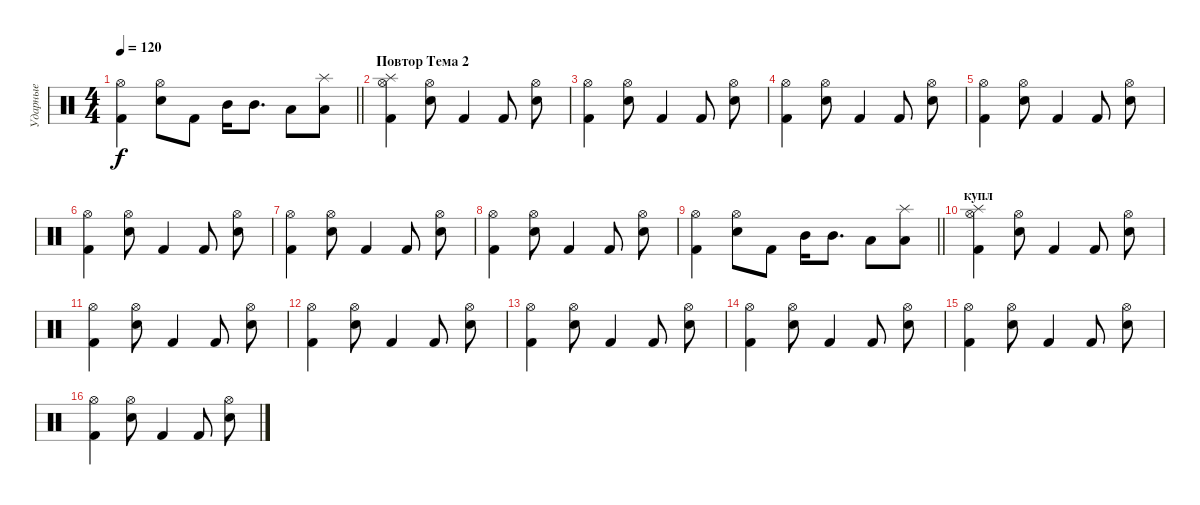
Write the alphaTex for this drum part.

\track ("Ударные" "Ударные") {instrument percussion}
\staff {score}
\articulation defaults
\ts (4 4)
\tempo 120
\clef neutral
\barLineRight lightlight
\ks c
("Kick (hit) 2" "Hi-Hat (open)").4{dy f} ("Electric Snare (hit)" "Hi-Hat (open)").8 "Kick (hit) 2".8 "Mid Tom (hit)".16 "Mid Tom (hit)".8{d} "Low Tom (hit)".8 ("Low Tom (hit)" "Splash (hit)").8 |
\section ("" "Повтор Тема 2")
("Kick (hit) 2" "Splash (hit)" "Hi-Hat (open)").4 ("Electric Snare (hit)" "Hi-Hat (open)").8 "Kick (hit) 2".4 "Kick (hit) 2".8 ("Electric Snare (hit)" "Hi-Hat (open)").8 |
("Kick (hit) 2" "Hi-Hat (open)").4 ("Electric Snare (hit)" "Hi-Hat (open)").8 "Kick (hit) 2".4 "Kick (hit) 2".8 ("Electric Snare (hit)" "Hi-Hat (open)").8 |
("Kick (hit) 2" "Hi-Hat (open)").4 ("Electric Snare (hit)" "Hi-Hat (open)").8 "Kick (hit) 2".4 "Kick (hit) 2".8 ("Electric Snare (hit)" "Hi-Hat (open)").8 |
("Kick (hit) 2" "Hi-Hat (open)").4 ("Electric Snare (hit)" "Hi-Hat (open)").8 "Kick (hit) 2".4 "Kick (hit) 2".8 ("Electric Snare (hit)" "Hi-Hat (open)").8 |
("Kick (hit) 2" "Hi-Hat (open)").4 ("Electric Snare (hit)" "Hi-Hat (open)").8 "Kick (hit) 2".4 "Kick (hit) 2".8 ("Electric Snare (hit)" "Hi-Hat (open)").8 |
("Kick (hit) 2" "Hi-Hat (open)").4 ("Electric Snare (hit)" "Hi-Hat (open)").8 "Kick (hit) 2".4 "Kick (hit) 2".8 ("Electric Snare (hit)" "Hi-Hat (open)").8 |
("Kick (hit) 2" "Hi-Hat (open)").4 ("Electric Snare (hit)" "Hi-Hat (open)").8 "Kick (hit) 2".4 "Kick (hit) 2".8 ("Electric Snare (hit)" "Hi-Hat (open)").8 |
\barLineRight lightlight
("Kick (hit) 2" "Hi-Hat (open)").4 ("Electric Snare (hit)" "Hi-Hat (open)").8 "Kick (hit) 2".8 "Mid Tom (hit)".16 "Mid Tom (hit)".8{d} "Low Tom (hit)".8 ("Low Tom (hit)" "Splash (hit)").8 |
\section ("" "купл")
("Kick (hit) 2" "Splash (hit)" "Hi-Hat (open)").4 ("Electric Snare (hit)" "Hi-Hat (open)").8 "Kick (hit) 2".4 "Kick (hit) 2".8 ("Electric Snare (hit)" "Hi-Hat (open)").8 |
("Kick (hit) 2" "Hi-Hat (open)").4 ("Electric Snare (hit)" "Hi-Hat (open)").8 "Kick (hit) 2".4 "Kick (hit) 2".8 ("Electric Snare (hit)" "Hi-Hat (open)").8 |
("Kick (hit) 2" "Hi-Hat (open)").4 ("Electric Snare (hit)" "Hi-Hat (open)").8 "Kick (hit) 2".4 "Kick (hit) 2".8 ("Electric Snare (hit)" "Hi-Hat (open)").8 |
("Kick (hit) 2" "Hi-Hat (open)").4 ("Electric Snare (hit)" "Hi-Hat (open)").8 "Kick (hit) 2".4 "Kick (hit) 2".8 ("Electric Snare (hit)" "Hi-Hat (open)").8 |
("Kick (hit) 2" "Hi-Hat (open)").4 ("Electric Snare (hit)" "Hi-Hat (open)").8 "Kick (hit) 2".4 "Kick (hit) 2".8 ("Electric Snare (hit)" "Hi-Hat (open)").8 |
("Kick (hit) 2" "Hi-Hat (open)").4 ("Electric Snare (hit)" "Hi-Hat (open)").8 "Kick (hit) 2".4 "Kick (hit) 2".8 ("Electric Snare (hit)" "Hi-Hat (open)").8 |
("Kick (hit) 2" "Hi-Hat (open)").4 ("Electric Snare (hit)" "Hi-Hat (open)").8 "Kick (hit) 2".4 "Kick (hit) 2".8 ("Electric Snare (hit)" "Hi-Hat (open)").8
